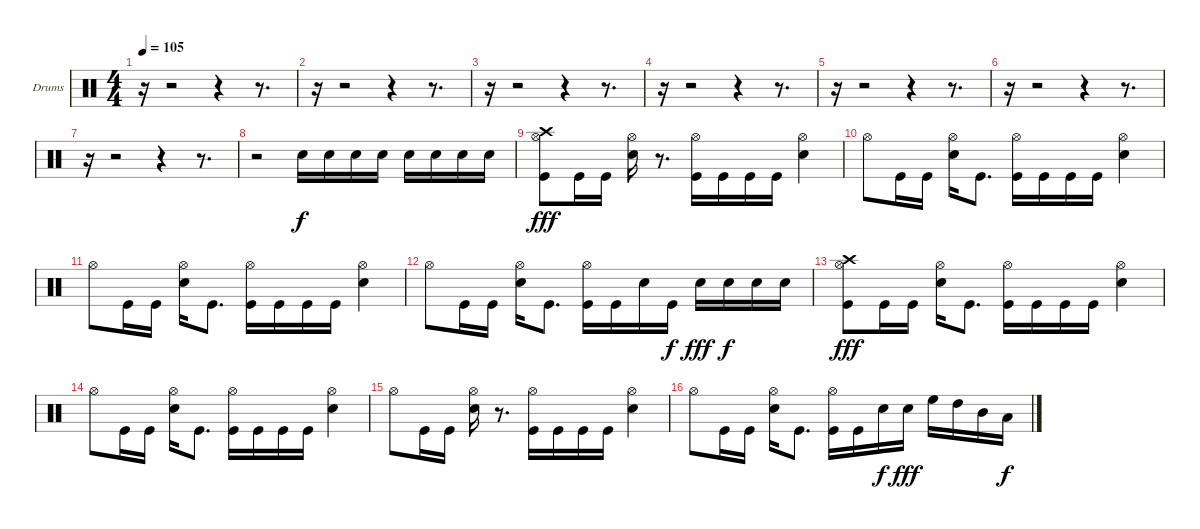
\bracketExtendMode groupsimilarinstruments
\firstSystemTrackNameOrientation horizontal
\otherSystemsTrackNameOrientation horizontal
\track ("Drumkit (Christoph)" "Drums") {instrument percussion}
\staff {score}
\articulation defaults
\ts (4 4)
\tempo 105
\clef neutral
\ks c
r.16{dy f} r.2 r.4 r.8{d} |
r.16 r.2 r.4 r.8{d} |
r.16 r.2 r.4 r.8{d} |
r.16 r.2 r.4 r.8{d} |
r.16 r.2 r.4 r.8{d} |
r.16 r.2 r.4 r.8{d} |
r.16 r.2 r.4 r.8{d} |
r.2 "Snare (hit) 2".16 "Snare (hit) 2".16 "Snare (hit) 2".16 "Snare (hit) 2".16 "Snare (hit) 2".16 "Snare (hit) 2".16 "Snare (hit) 2".16 "Snare (hit) 2".16 |
("Crash high (hit)" "Kick (hit)" "Hi-Hat (open)").8{dy fff} "Kick (hit)".16 "Kick (hit)".16 ("Hi-Hat (open)" "Snare (hit) 2").16 r.8{d} ("Hi-Hat (open)" "Kick (hit)").16 "Kick (hit)".16 "Kick (hit)".16 "Kick (hit)".16 ("Hi-Hat (open)" "Snare (hit) 2").4 |
"Hi-Hat (open)".8 "Kick (hit)".16 "Kick (hit)".16 ("Hi-Hat (open)" "Snare (hit) 2").16 "Kick (hit)".8{d} ("Hi-Hat (open)" "Kick (hit)").16 "Kick (hit)".16 "Kick (hit)".16 "Kick (hit)".16 ("Hi-Hat (open)" "Snare (hit) 2").4 |
"Hi-Hat (open)".8 "Kick (hit)".16 "Kick (hit)".16 ("Hi-Hat (open)" "Snare (hit) 2").16 "Kick (hit)".8{d} ("Hi-Hat (open)" "Kick (hit)").16 "Kick (hit)".16 "Kick (hit)".16 "Kick (hit)".16 ("Hi-Hat (open)" "Snare (hit) 2").4 |
"Hi-Hat (open)".8 "Kick (hit)".16 "Kick (hit)".16 ("Hi-Hat (open)" "Snare (hit) 2").16 "Kick (hit)".8{d} ("Hi-Hat (open)" "Kick (hit)").16 "Kick (hit)".16 "Snare (hit) 2".16 "Kick (hit)".16{dy f} "Snare (hit) 2".16{dy fff} "Snare (hit) 2".16{dy f} "Snare (hit) 2".16 "Snare (hit) 2".16 |
("Crash high (hit)" "Kick (hit)" "Hi-Hat (open)").8{dy fff} "Kick (hit)".16 "Kick (hit)".16 ("Hi-Hat (open)" "Snare (hit) 2").16 "Kick (hit)".8{d} ("Hi-Hat (open)" "Kick (hit)").16 "Kick (hit)".16 "Kick (hit)".16 "Kick (hit)".16 ("Hi-Hat (open)" "Snare (hit) 2").4 |
"Hi-Hat (open)".8 "Kick (hit)".16 "Kick (hit)".16 ("Hi-Hat (open)" "Snare (hit) 2").16 "Kick (hit)".8{d} ("Hi-Hat (open)" "Kick (hit)").16 "Kick (hit)".16 "Kick (hit)".16 "Kick (hit)".16 ("Hi-Hat (open)" "Snare (hit) 2").4 |
"Hi-Hat (open)".8 "Kick (hit)".16 "Kick (hit)".16 ("Hi-Hat (open)" "Snare (hit) 2").16 r.8{d} ("Hi-Hat (open)" "Kick (hit)").16 "Kick (hit)".16 "Kick (hit)".16 "Kick (hit)".16 ("Hi-Hat (open)" "Snare (hit) 2").4 |
"Hi-Hat (open)".8 "Kick (hit)".16 "Kick (hit)".16 ("Hi-Hat (open)" "Snare (hit) 2").16 "Kick (hit)".8{d} ("Hi-Hat (open)" "Kick (hit)").16 "Kick (hit)".16 "Snare (hit) 2".16{dy f} "Snare (hit) 2".16{dy fff} "High Floor Tom (hit)".16 "High Tom (hit)".16 "Mid Tom (hit)".16 "Low Tom (hit)".16{dy f}
